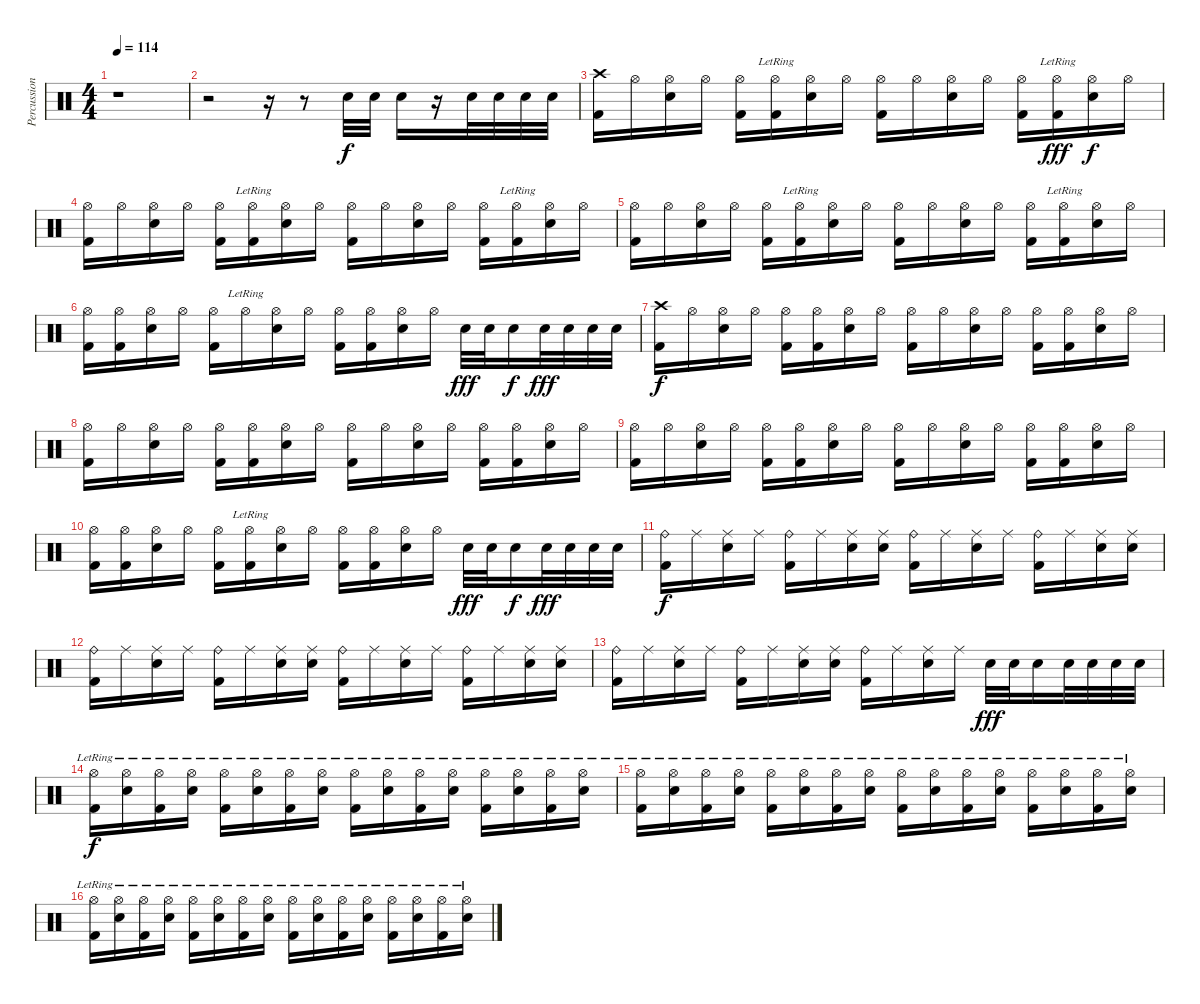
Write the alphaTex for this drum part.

\track ("Percussions" "Percussion") {instrument percussion}
\staff {score}
\articulation defaults
\ts (4 4)
\tempo 114
\clef neutral
\ks c
r.1{dy f} |
r.2 r.16 r.8 "Electric Snare (hit)".32 "Electric Snare (hit)".32 "Electric Snare (hit)".16 r.16 "Electric Snare (hit)".32 "Electric Snare (hit)".32 "Electric Snare (hit)".32 "Electric Snare (hit)".32 |
("Crash high (hit)" "Kick (hit) 2").16 "Hi-Hat (open)".16 ("Hi-Hat (open)" "Electric Snare (hit)").16 "Hi-Hat (open)".16 ("Hi-Hat (open)" "Kick (hit) 2").16 ("Hi-Hat (open)"{lr} "Kick (hit) 2").16 ("Hi-Hat (open)" "Electric Snare (hit)").16 "Hi-Hat (open)".16 ("Hi-Hat (open)" "Kick (hit) 2").16 "Hi-Hat (open)".16 ("Hi-Hat (open)" "Electric Snare (hit)").16 "Hi-Hat (open)".16 ("Hi-Hat (open)" "Kick (hit) 2").16 ("Hi-Hat (open)"{lr} "Kick (hit) 2").16{dy fff} ("Hi-Hat (open)" "Electric Snare (hit)").16{dy f} "Hi-Hat (open)".16 |
("Hi-Hat (open)" "Kick (hit) 2").16 "Hi-Hat (open)".16 ("Hi-Hat (open)" "Electric Snare (hit)").16 "Hi-Hat (open)".16 ("Hi-Hat (open)" "Kick (hit) 2").16 ("Hi-Hat (open)"{lr} "Kick (hit) 2").16 ("Hi-Hat (open)" "Electric Snare (hit)").16 "Hi-Hat (open)".16 ("Hi-Hat (open)" "Kick (hit) 2").16 "Hi-Hat (open)".16 ("Hi-Hat (open)" "Electric Snare (hit)").16 "Hi-Hat (open)".16 ("Hi-Hat (open)" "Kick (hit) 2").16 ("Hi-Hat (open)"{lr} "Kick (hit) 2").16 ("Hi-Hat (open)" "Electric Snare (hit)").16 "Hi-Hat (open)".16 |
("Hi-Hat (open)" "Kick (hit) 2").16 "Hi-Hat (open)".16 ("Hi-Hat (open)" "Electric Snare (hit)").16 "Hi-Hat (open)".16 ("Hi-Hat (open)" "Kick (hit) 2").16 ("Hi-Hat (open)"{lr} "Kick (hit) 2").16 ("Hi-Hat (open)" "Electric Snare (hit)").16 "Hi-Hat (open)".16 ("Hi-Hat (open)" "Kick (hit) 2").16 "Hi-Hat (open)".16 ("Hi-Hat (open)" "Electric Snare (hit)").16 "Hi-Hat (open)".16 ("Hi-Hat (open)" "Kick (hit) 2").16 ("Hi-Hat (open)"{lr} "Kick (hit) 2").16 ("Hi-Hat (open)" "Electric Snare (hit)").16 "Hi-Hat (open)".16 |
("Hi-Hat (open)" "Kick (hit) 2").16 ("Hi-Hat (open)" "Kick (hit) 2").16 ("Hi-Hat (open)" "Electric Snare (hit)").16 "Hi-Hat (open)".16 ("Hi-Hat (open)" "Kick (hit) 2").16 "Hi-Hat (open)"{lr}.16 ("Hi-Hat (open)" "Electric Snare (hit)").16 "Hi-Hat (open)".16 ("Hi-Hat (open)" "Kick (hit) 2").16 ("Hi-Hat (open)" "Kick (hit) 2").16 ("Hi-Hat (open)" "Electric Snare (hit)").16 "Hi-Hat (open)".16 "Electric Snare (hit)".32{dy fff} "Electric Snare (hit)".32 "Electric Snare (hit)".16{dy f} "Electric Snare (hit)".32{dy fff} "Electric Snare (hit)".32 "Electric Snare (hit)".32 "Electric Snare (hit)".32 |
("Crash high (hit)" "Kick (hit) 2").16{dy f} "Hi-Hat (open)".16 ("Hi-Hat (open)" "Electric Snare (hit)").16 "Hi-Hat (open)".16 ("Hi-Hat (open)" "Kick (hit) 2").16 ("Hi-Hat (open)" "Kick (hit) 2").16 ("Hi-Hat (open)" "Electric Snare (hit)").16 "Hi-Hat (open)".16 ("Hi-Hat (open)" "Kick (hit) 2").16 "Hi-Hat (open)".16 ("Hi-Hat (open)" "Electric Snare (hit)").16 "Hi-Hat (open)".16 ("Hi-Hat (open)" "Kick (hit) 2").16 ("Hi-Hat (open)" "Kick (hit) 2").16 ("Hi-Hat (open)" "Electric Snare (hit)").16 "Hi-Hat (open)".16 |
("Hi-Hat (open)" "Kick (hit) 2").16 "Hi-Hat (open)".16 ("Hi-Hat (open)" "Electric Snare (hit)").16 "Hi-Hat (open)".16 ("Hi-Hat (open)" "Kick (hit) 2").16 ("Hi-Hat (open)" "Kick (hit) 2").16 ("Hi-Hat (open)" "Electric Snare (hit)").16 "Hi-Hat (open)".16 ("Hi-Hat (open)" "Kick (hit) 2").16 "Hi-Hat (open)".16 ("Hi-Hat (open)" "Electric Snare (hit)").16 "Hi-Hat (open)".16 ("Hi-Hat (open)" "Kick (hit) 2").16 ("Hi-Hat (open)" "Kick (hit) 2").16 ("Hi-Hat (open)" "Electric Snare (hit)").16 "Hi-Hat (open)".16 |
("Hi-Hat (open)" "Kick (hit) 2").16 "Hi-Hat (open)".16 ("Hi-Hat (open)" "Electric Snare (hit)").16 "Hi-Hat (open)".16 ("Hi-Hat (open)" "Kick (hit) 2").16 ("Hi-Hat (open)" "Kick (hit) 2").16 ("Hi-Hat (open)" "Electric Snare (hit)").16 "Hi-Hat (open)".16 ("Hi-Hat (open)" "Kick (hit) 2").16 "Hi-Hat (open)".16 ("Hi-Hat (open)" "Electric Snare (hit)").16 "Hi-Hat (open)".16 ("Hi-Hat (open)" "Kick (hit) 2").16 ("Hi-Hat (open)" "Kick (hit) 2").16 ("Hi-Hat (open)" "Electric Snare (hit)").16 "Hi-Hat (open)".16 |
("Hi-Hat (open)" "Kick (hit) 2").16 ("Hi-Hat (open)" "Kick (hit) 2").16 ("Hi-Hat (open)" "Electric Snare (hit)").16 "Hi-Hat (open)".16 ("Hi-Hat (open)" "Kick (hit) 2").16 ("Hi-Hat (open)"{lr} "Kick (hit) 2").16 ("Hi-Hat (open)" "Electric Snare (hit)").16 "Hi-Hat (open)".16 ("Hi-Hat (open)" "Kick (hit) 2").16 ("Hi-Hat (open)" "Kick (hit) 2").16 ("Hi-Hat (open)" "Electric Snare (hit)").16 "Hi-Hat (open)".16 "Electric Snare (hit)".32{dy fff} "Electric Snare (hit)".32 "Electric Snare (hit)".16{dy f} "Electric Snare (hit)".32{dy fff} "Electric Snare (hit)".32 "Electric Snare (hit)".32 "Electric Snare (hit)".32 |
("Ride (bell)" "Kick (hit) 2").16{dy f} "Ride (middle)".16 ("Ride (middle)" "Electric Snare (hit)").16 "Ride (middle)".16 ("Ride (bell)" "Kick (hit) 2").16 "Ride (middle)".16 ("Ride (middle)" "Electric Snare (hit)").16 ("Ride (middle)" "Electric Snare (hit)").16 ("Ride (bell)" "Kick (hit) 2").16 "Ride (middle)".16 ("Ride (middle)" "Electric Snare (hit)").16 "Ride (middle)".16 ("Ride (bell)" "Kick (hit) 2").16 "Ride (middle)".16 ("Ride (middle)" "Electric Snare (hit)").16 ("Ride (middle)" "Electric Snare (hit)").16 |
("Ride (bell)" "Kick (hit) 2").16 "Ride (middle)".16 ("Ride (middle)" "Electric Snare (hit)").16 "Ride (middle)".16 ("Ride (bell)" "Kick (hit) 2").16 "Ride (middle)".16 ("Ride (middle)" "Electric Snare (hit)").16 ("Ride (middle)" "Electric Snare (hit)").16 ("Ride (bell)" "Kick (hit) 2").16 "Ride (middle)".16 ("Ride (middle)" "Electric Snare (hit)").16 "Ride (middle)".16 ("Ride (bell)" "Kick (hit) 2").16 "Ride (middle)".16 ("Ride (middle)" "Electric Snare (hit)").16 ("Ride (middle)" "Electric Snare (hit)").16 |
("Ride (bell)" "Kick (hit) 2").16 "Ride (middle)".16 ("Ride (middle)" "Electric Snare (hit)").16 "Ride (middle)".16 ("Ride (bell)" "Kick (hit) 2").16 "Ride (middle)".16 ("Ride (middle)" "Electric Snare (hit)").16 ("Ride (middle)" "Electric Snare (hit)").16 ("Ride (bell)" "Kick (hit) 2").16 "Ride (middle)".16 ("Ride (middle)" "Electric Snare (hit)").16 "Ride (middle)".16 "Electric Snare (hit)".32{dy fff} "Electric Snare (hit)".32 "Electric Snare (hit)".16 "Electric Snare (hit)".32 "Electric Snare (hit)".32 "Electric Snare (hit)".32 "Electric Snare (hit)".32 |
("Hi-Hat (open)"{lr} "Kick (hit) 2").16{dy f} ("Hi-Hat (open)"{lr} "Electric Snare (hit)").16 ("Hi-Hat (open)"{lr} "Kick (hit) 2").16 ("Hi-Hat (open)"{lr} "Electric Snare (hit)").16 ("Hi-Hat (open)"{lr} "Kick (hit) 2").16 ("Hi-Hat (open)"{lr} "Electric Snare (hit)").16 ("Hi-Hat (open)"{lr} "Kick (hit) 2").16 ("Hi-Hat (open)"{lr} "Electric Snare (hit)").16 ("Hi-Hat (open)"{lr} "Kick (hit) 2").16 ("Hi-Hat (open)"{lr} "Electric Snare (hit)").16 ("Hi-Hat (open)"{lr} "Kick (hit) 2").16 ("Hi-Hat (open)"{lr} "Electric Snare (hit)").16 ("Hi-Hat (open)"{lr} "Kick (hit) 2").16 ("Hi-Hat (open)"{lr} "Electric Snare (hit)").16 ("Hi-Hat (open)"{lr} "Kick (hit) 2").16 ("Hi-Hat (open)"{lr} "Electric Snare (hit)").16 |
("Hi-Hat (open)"{lr} "Kick (hit) 2").16 ("Hi-Hat (open)"{lr} "Electric Snare (hit)").16 ("Hi-Hat (open)"{lr} "Kick (hit) 2").16 ("Hi-Hat (open)"{lr} "Electric Snare (hit)").16 ("Hi-Hat (open)"{lr} "Kick (hit) 2").16 ("Hi-Hat (open)"{lr} "Electric Snare (hit)").16 ("Hi-Hat (open)"{lr} "Kick (hit) 2").16 ("Hi-Hat (open)"{lr} "Electric Snare (hit)").16 ("Hi-Hat (open)"{lr} "Kick (hit) 2").16 ("Hi-Hat (open)"{lr} "Electric Snare (hit)").16 ("Hi-Hat (open)"{lr} "Kick (hit) 2").16 ("Hi-Hat (open)"{lr} "Electric Snare (hit)").16 ("Hi-Hat (open)"{lr} "Kick (hit) 2").16 ("Hi-Hat (open)"{lr} "Electric Snare (hit)").16 ("Hi-Hat (open)"{lr} "Kick (hit) 2").16 ("Hi-Hat (open)"{lr} "Electric Snare (hit)").16 |
("Hi-Hat (open)"{lr} "Kick (hit) 2").16 ("Hi-Hat (open)"{lr} "Electric Snare (hit)").16 ("Hi-Hat (open)"{lr} "Kick (hit) 2").16 ("Hi-Hat (open)"{lr} "Electric Snare (hit)").16 ("Hi-Hat (open)"{lr} "Kick (hit) 2").16 ("Hi-Hat (open)"{lr} "Electric Snare (hit)").16 ("Hi-Hat (open)"{lr} "Kick (hit) 2").16 ("Hi-Hat (open)"{lr} "Electric Snare (hit)").16 ("Hi-Hat (open)"{lr} "Kick (hit) 2").16 ("Hi-Hat (open)"{lr} "Electric Snare (hit)").16 ("Hi-Hat (open)"{lr} "Kick (hit) 2").16 ("Hi-Hat (open)"{lr} "Electric Snare (hit)").16 ("Hi-Hat (open)"{lr} "Kick (hit) 2").16 ("Hi-Hat (open)"{lr} "Electric Snare (hit)").16 ("Hi-Hat (open)"{lr} "Kick (hit) 2").16 ("Hi-Hat (open)"{lr} "Electric Snare (hit)").16
